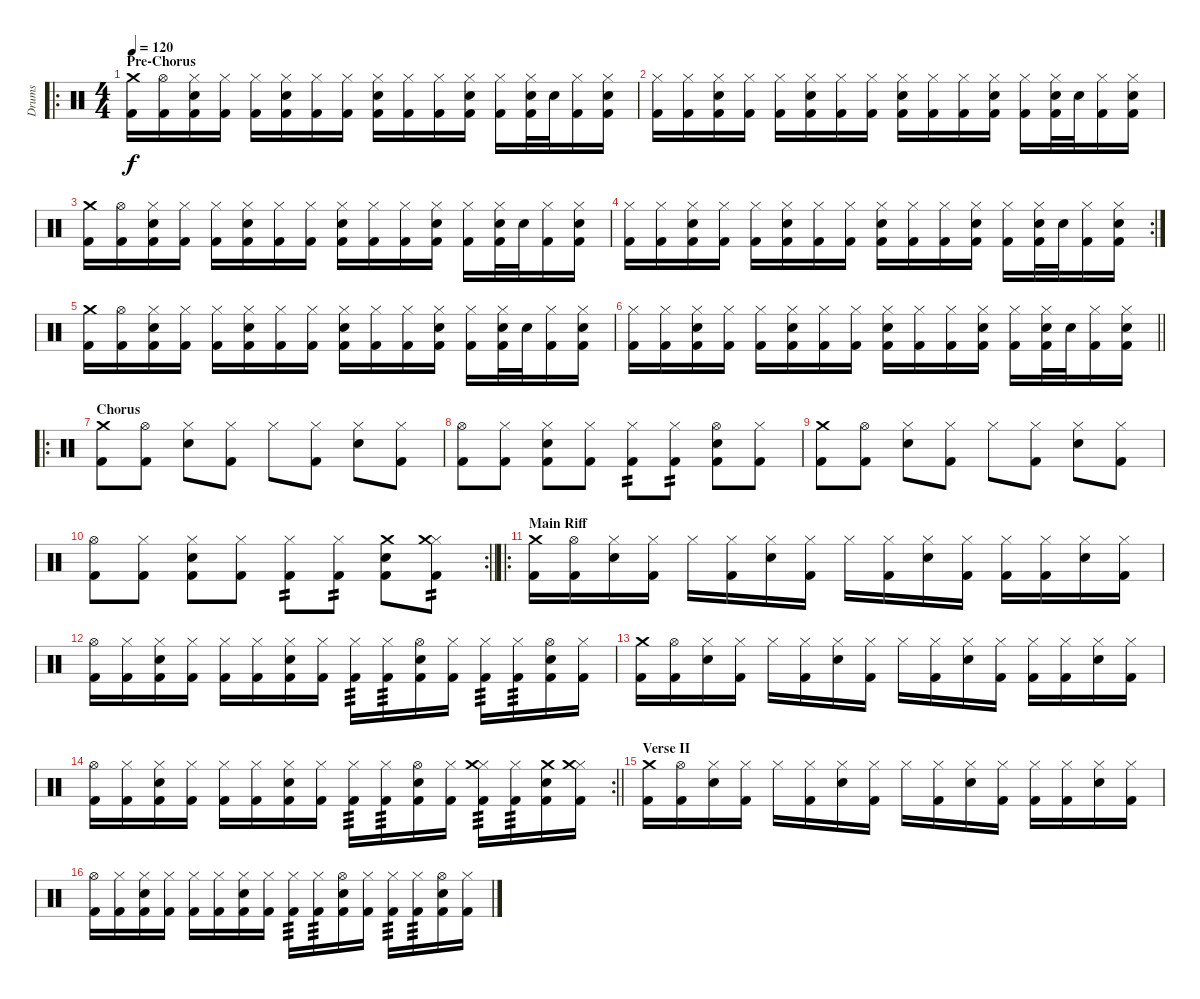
\track ("Drums" "Drums") {instrument percussion}
\staff {score}
\articulation defaults
\ro
\ts (4 4)
\section ("" "Pre-Chorus")
\tempo 120
\clef neutral
\ks c
("Kick (hit) 2" "Crash medium (hit)").16{dy f} ("Kick (hit) 2" "Hi-Hat (open)").16 ("Kick (hit) 2" "Snare (hit) 2" "Hi-Hat (closed)").16 ("Kick (hit) 2" "Hi-Hat (closed)").16 ("Kick (hit) 2" "Hi-Hat (closed)").16 ("Kick (hit) 2" "Snare (hit) 2" "Hi-Hat (closed)").16 ("Kick (hit) 2" "Hi-Hat (closed)").16 ("Kick (hit) 2" "Hi-Hat (closed)").16 ("Kick (hit) 2" "Snare (hit) 2" "Hi-Hat (closed)").16 ("Kick (hit) 2" "Hi-Hat (closed)").16 ("Kick (hit) 2" "Hi-Hat (closed)").16 ("Kick (hit) 2" "Snare (hit) 2" "Hi-Hat (closed)").16 ("Kick (hit) 2" "Hi-Hat (closed)").16 ("Kick (hit) 2" "Snare (hit) 2" "Hi-Hat (closed)").32 "Snare (hit) 2".32 ("Kick (hit) 2" "Hi-Hat (closed)").16 ("Kick (hit) 2" "Snare (hit) 2" "Hi-Hat (closed)").16 |
("Kick (hit) 2" "Hi-Hat (closed)").16 ("Kick (hit) 2" "Hi-Hat (closed)").16 ("Kick (hit) 2" "Snare (hit) 2" "Hi-Hat (closed)").16 ("Kick (hit) 2" "Hi-Hat (closed)").16 ("Kick (hit) 2" "Hi-Hat (closed)").16 ("Kick (hit) 2" "Snare (hit) 2" "Hi-Hat (closed)").16 ("Kick (hit) 2" "Hi-Hat (closed)").16 ("Kick (hit) 2" "Hi-Hat (closed)").16 ("Kick (hit) 2" "Snare (hit) 2" "Hi-Hat (closed)").16 ("Kick (hit) 2" "Hi-Hat (closed)").16 ("Kick (hit) 2" "Hi-Hat (closed)").16 ("Kick (hit) 2" "Snare (hit) 2" "Hi-Hat (closed)").16 ("Kick (hit) 2" "Hi-Hat (closed)").16 ("Kick (hit) 2" "Snare (hit) 2" "Hi-Hat (closed)").32 "Snare (hit) 2".32 ("Kick (hit) 2" "Hi-Hat (closed)").16 ("Kick (hit) 2" "Snare (hit) 2" "Hi-Hat (closed)").16 |
("Kick (hit) 2" "Crash medium (hit)").16 ("Kick (hit) 2" "Hi-Hat (open)").16 ("Kick (hit) 2" "Snare (hit) 2" "Hi-Hat (closed)").16 ("Kick (hit) 2" "Hi-Hat (closed)").16 ("Kick (hit) 2" "Hi-Hat (closed)").16 ("Kick (hit) 2" "Snare (hit) 2" "Hi-Hat (closed)").16 ("Kick (hit) 2" "Hi-Hat (closed)").16 ("Kick (hit) 2" "Hi-Hat (closed)").16 ("Kick (hit) 2" "Snare (hit) 2" "Hi-Hat (closed)").16 ("Kick (hit) 2" "Hi-Hat (closed)").16 ("Kick (hit) 2" "Hi-Hat (closed)").16 ("Kick (hit) 2" "Snare (hit) 2" "Hi-Hat (closed)").16 ("Kick (hit) 2" "Hi-Hat (closed)").16 ("Kick (hit) 2" "Snare (hit) 2" "Hi-Hat (closed)").32 "Snare (hit) 2".32 ("Kick (hit) 2" "Hi-Hat (closed)").16 ("Kick (hit) 2" "Snare (hit) 2" "Hi-Hat (closed)").16 |
\rc 2
("Kick (hit) 2" "Hi-Hat (closed)").16 ("Kick (hit) 2" "Hi-Hat (closed)").16 ("Kick (hit) 2" "Snare (hit) 2" "Hi-Hat (closed)").16 ("Kick (hit) 2" "Hi-Hat (closed)").16 ("Kick (hit) 2" "Hi-Hat (closed)").16 ("Kick (hit) 2" "Snare (hit) 2" "Hi-Hat (closed)").16 ("Kick (hit) 2" "Hi-Hat (closed)").16 ("Kick (hit) 2" "Hi-Hat (closed)").16 ("Kick (hit) 2" "Snare (hit) 2" "Hi-Hat (closed)").16 ("Kick (hit) 2" "Hi-Hat (closed)").16 ("Kick (hit) 2" "Hi-Hat (closed)").16 ("Kick (hit) 2" "Snare (hit) 2" "Hi-Hat (closed)").16 ("Kick (hit) 2" "Hi-Hat (closed)").16 ("Kick (hit) 2" "Snare (hit) 2" "Hi-Hat (closed)").32 "Snare (hit) 2".32 ("Kick (hit) 2" "Hi-Hat (closed)").16 ("Kick (hit) 2" "Snare (hit) 2" "Hi-Hat (closed)").16 |
("Kick (hit) 2" "Crash medium (hit)").16 ("Kick (hit) 2" "Hi-Hat (open)").16 ("Kick (hit) 2" "Snare (hit) 2" "Hi-Hat (closed)").16 ("Kick (hit) 2" "Hi-Hat (closed)").16 ("Kick (hit) 2" "Hi-Hat (closed)").16 ("Kick (hit) 2" "Snare (hit) 2" "Hi-Hat (closed)").16 ("Kick (hit) 2" "Hi-Hat (closed)").16 ("Kick (hit) 2" "Hi-Hat (closed)").16 ("Kick (hit) 2" "Snare (hit) 2" "Hi-Hat (closed)").16 ("Kick (hit) 2" "Hi-Hat (closed)").16 ("Kick (hit) 2" "Hi-Hat (closed)").16 ("Kick (hit) 2" "Snare (hit) 2" "Hi-Hat (closed)").16 ("Kick (hit) 2" "Hi-Hat (closed)").16 ("Kick (hit) 2" "Snare (hit) 2" "Hi-Hat (closed)").32 "Snare (hit) 2".32 ("Kick (hit) 2" "Hi-Hat (closed)").16 ("Kick (hit) 2" "Snare (hit) 2" "Hi-Hat (closed)").16 |
\barLineRight lightlight
("Kick (hit) 2" "Hi-Hat (closed)").16 ("Kick (hit) 2" "Hi-Hat (closed)").16 ("Kick (hit) 2" "Snare (hit) 2" "Hi-Hat (closed)").16 ("Kick (hit) 2" "Hi-Hat (closed)").16 ("Kick (hit) 2" "Hi-Hat (closed)").16 ("Kick (hit) 2" "Snare (hit) 2" "Hi-Hat (closed)").16 ("Kick (hit) 2" "Hi-Hat (closed)").16 ("Kick (hit) 2" "Hi-Hat (closed)").16 ("Kick (hit) 2" "Snare (hit) 2" "Hi-Hat (closed)").16 ("Kick (hit) 2" "Hi-Hat (closed)").16 ("Kick (hit) 2" "Hi-Hat (closed)").16 ("Kick (hit) 2" "Snare (hit) 2" "Hi-Hat (closed)").16 ("Kick (hit) 2" "Hi-Hat (closed)").16 ("Kick (hit) 2" "Snare (hit) 2" "Hi-Hat (closed)").32 "Snare (hit) 2".32 ("Kick (hit) 2" "Hi-Hat (closed)").16 ("Kick (hit) 2" "Snare (hit) 2" "Hi-Hat (closed)").16 |
\ro
\section ("" "Chorus")
("Kick (hit) 2" "Crash medium (hit)").8 ("Kick (hit) 2" "Hi-Hat (open)").8 ("Snare (hit) 2" "Hi-Hat (closed)").8 ("Kick (hit) 2" "Hi-Hat (closed)").8 "Hi-Hat (closed)".8 ("Kick (hit) 2" "Hi-Hat (closed)").8 ("Snare (hit) 2" "Hi-Hat (closed)").8 ("Kick (hit) 2" "Hi-Hat (closed)").8 |
("Kick (hit) 2" "Hi-Hat (open)").8 ("Kick (hit) 2" "Hi-Hat (closed)").8 ("Kick (hit) 2" "Snare (hit) 2" "Hi-Hat (closed)").8 ("Kick (hit) 2" "Hi-Hat (closed)").8 ("Kick (hit) 2" "Hi-Hat (closed)").8{tp 2} ("Kick (hit) 2" "Hi-Hat (closed)").8{tp 2} ("Kick (hit) 2" "Snare (hit) 2" "Hi-Hat (open)").8 ("Kick (hit) 2" "Hi-Hat (closed)").8 |
("Kick (hit) 2" "Crash medium (hit)").8 ("Kick (hit) 2" "Hi-Hat (open)").8 ("Snare (hit) 2" "Hi-Hat (closed)").8 ("Kick (hit) 2" "Hi-Hat (closed)").8 "Hi-Hat (closed)".8 ("Kick (hit) 2" "Hi-Hat (closed)").8 ("Snare (hit) 2" "Hi-Hat (closed)").8 ("Kick (hit) 2" "Hi-Hat (closed)").8 |
\rc 2
\barLineRight lightlight
("Kick (hit) 2" "Hi-Hat (open)").8 ("Kick (hit) 2" "Hi-Hat (closed)").8 ("Kick (hit) 2" "Snare (hit) 2" "Hi-Hat (closed)").8 ("Kick (hit) 2" "Hi-Hat (closed)").8 ("Kick (hit) 2" "Hi-Hat (closed)").8{tp 2} ("Kick (hit) 2" "Hi-Hat (closed)").8{tp 2} ("Kick (hit) 2" "Snare (hit) 2" "Crash medium (hit)").8 ("Kick (hit) 2" "Hi-Hat (closed)" "Crash medium (hit)").8{tp 2} |
\ro
\section ("" "Main Riff")
("Kick (hit) 2" "Crash medium (hit)").16 ("Kick (hit) 2" "Hi-Hat (open)").16 ("Snare (hit) 2" "Hi-Hat (closed)").16 ("Kick (hit) 2" "Hi-Hat (closed)").16 "Hi-Hat (closed)".16 ("Kick (hit) 2" "Hi-Hat (closed)").16 ("Snare (hit) 2" "Hi-Hat (closed)").16 ("Kick (hit) 2" "Hi-Hat (closed)").16 "Hi-Hat (closed)".16 ("Kick (hit) 2" "Hi-Hat (closed)").16 ("Snare (hit) 2" "Hi-Hat (closed)").16 ("Kick (hit) 2" "Hi-Hat (closed)").16 ("Kick (hit) 2" "Hi-Hat (closed)").16 ("Kick (hit) 2" "Hi-Hat (closed)").16 ("Snare (hit) 2" "Hi-Hat (closed)").16 ("Kick (hit) 2" "Hi-Hat (closed)").16 |
("Kick (hit) 2" "Hi-Hat (open)").16 ("Kick (hit) 2" "Hi-Hat (closed)").16 ("Kick (hit) 2" "Snare (hit) 2" "Hi-Hat (closed)").16 ("Kick (hit) 2" "Hi-Hat (closed)").16 ("Kick (hit) 2" "Hi-Hat (closed)").16 ("Kick (hit) 2" "Hi-Hat (closed)").16 ("Kick (hit) 2" "Snare (hit) 2" "Hi-Hat (closed)").16 ("Kick (hit) 2" "Hi-Hat (closed)").16 ("Kick (hit) 2" "Hi-Hat (closed)").16{tp 3} ("Kick (hit) 2" "Hi-Hat (closed)").16{tp 3} ("Kick (hit) 2" "Snare (hit) 2" "Hi-Hat (open)").16 ("Kick (hit) 2" "Hi-Hat (closed)").16 ("Kick (hit) 2" "Hi-Hat (closed)").16{tp 3} ("Kick (hit) 2" "Hi-Hat (closed)").16{tp 3} ("Kick (hit) 2" "Snare (hit) 2" "Hi-Hat (open)").16 ("Kick (hit) 2" "Hi-Hat (closed)").16 |
("Kick (hit) 2" "Crash medium (hit)").16 ("Kick (hit) 2" "Hi-Hat (open)").16 ("Snare (hit) 2" "Hi-Hat (closed)").16 ("Kick (hit) 2" "Hi-Hat (closed)").16 "Hi-Hat (closed)".16 ("Kick (hit) 2" "Hi-Hat (closed)").16 ("Snare (hit) 2" "Hi-Hat (closed)").16 ("Kick (hit) 2" "Hi-Hat (closed)").16 "Hi-Hat (closed)".16 ("Kick (hit) 2" "Hi-Hat (closed)").16 ("Snare (hit) 2" "Hi-Hat (closed)").16 ("Kick (hit) 2" "Hi-Hat (closed)").16 ("Kick (hit) 2" "Hi-Hat (closed)").16 ("Kick (hit) 2" "Hi-Hat (closed)").16 ("Snare (hit) 2" "Hi-Hat (closed)").16 ("Kick (hit) 2" "Hi-Hat (closed)").16 |
\rc 2
\barLineRight lightlight
("Kick (hit) 2" "Hi-Hat (open)").16 ("Kick (hit) 2" "Hi-Hat (closed)").16 ("Kick (hit) 2" "Snare (hit) 2" "Hi-Hat (closed)").16 ("Kick (hit) 2" "Hi-Hat (closed)").16 ("Kick (hit) 2" "Hi-Hat (closed)").16 ("Kick (hit) 2" "Hi-Hat (closed)").16 ("Kick (hit) 2" "Snare (hit) 2" "Hi-Hat (closed)").16 ("Kick (hit) 2" "Hi-Hat (closed)").16 ("Kick (hit) 2" "Hi-Hat (closed)").16{tp 3} ("Kick (hit) 2" "Hi-Hat (closed)").16{tp 3} ("Kick (hit) 2" "Snare (hit) 2" "Hi-Hat (open)").16 ("Kick (hit) 2" "Hi-Hat (closed)").16 ("Kick (hit) 2" "Hi-Hat (closed)" "Crash medium (hit)").16{tp 3} ("Kick (hit) 2" "Hi-Hat (closed)").16{tp 3} ("Kick (hit) 2" "Snare (hit) 2" "Crash medium (hit)").16 ("Kick (hit) 2" "Hi-Hat (closed)" "Crash medium (hit)").16 |
\section ("" "Verse II")
("Kick (hit) 2" "Crash medium (hit)").16 ("Kick (hit) 2" "Hi-Hat (open)").16 ("Snare (hit) 2" "Hi-Hat (closed)").16 ("Kick (hit) 2" "Hi-Hat (closed)").16 "Hi-Hat (closed)".16 ("Kick (hit) 2" "Hi-Hat (closed)").16 ("Snare (hit) 2" "Hi-Hat (closed)").16 ("Kick (hit) 2" "Hi-Hat (closed)").16 "Hi-Hat (closed)".16 ("Kick (hit) 2" "Hi-Hat (closed)").16 ("Snare (hit) 2" "Hi-Hat (closed)").16 ("Kick (hit) 2" "Hi-Hat (closed)").16 ("Kick (hit) 2" "Hi-Hat (closed)").16 ("Kick (hit) 2" "Hi-Hat (closed)").16 ("Snare (hit) 2" "Hi-Hat (closed)").16 ("Kick (hit) 2" "Hi-Hat (closed)").16 |
("Kick (hit) 2" "Hi-Hat (open)").16 ("Kick (hit) 2" "Hi-Hat (closed)").16 ("Kick (hit) 2" "Snare (hit) 2" "Hi-Hat (closed)").16 ("Kick (hit) 2" "Hi-Hat (closed)").16 ("Kick (hit) 2" "Hi-Hat (closed)").16 ("Kick (hit) 2" "Hi-Hat (closed)").16 ("Kick (hit) 2" "Snare (hit) 2" "Hi-Hat (closed)").16 ("Kick (hit) 2" "Hi-Hat (closed)").16 ("Kick (hit) 2" "Hi-Hat (closed)").16{tp 3} ("Kick (hit) 2" "Hi-Hat (closed)").16{tp 3} ("Kick (hit) 2" "Snare (hit) 2" "Hi-Hat (open)").16 ("Kick (hit) 2" "Hi-Hat (closed)").16 ("Kick (hit) 2" "Hi-Hat (closed)").16{tp 3} ("Kick (hit) 2" "Hi-Hat (closed)").16{tp 3} ("Kick (hit) 2" "Snare (hit) 2" "Hi-Hat (open)").16 ("Kick (hit) 2" "Hi-Hat (closed)").16
